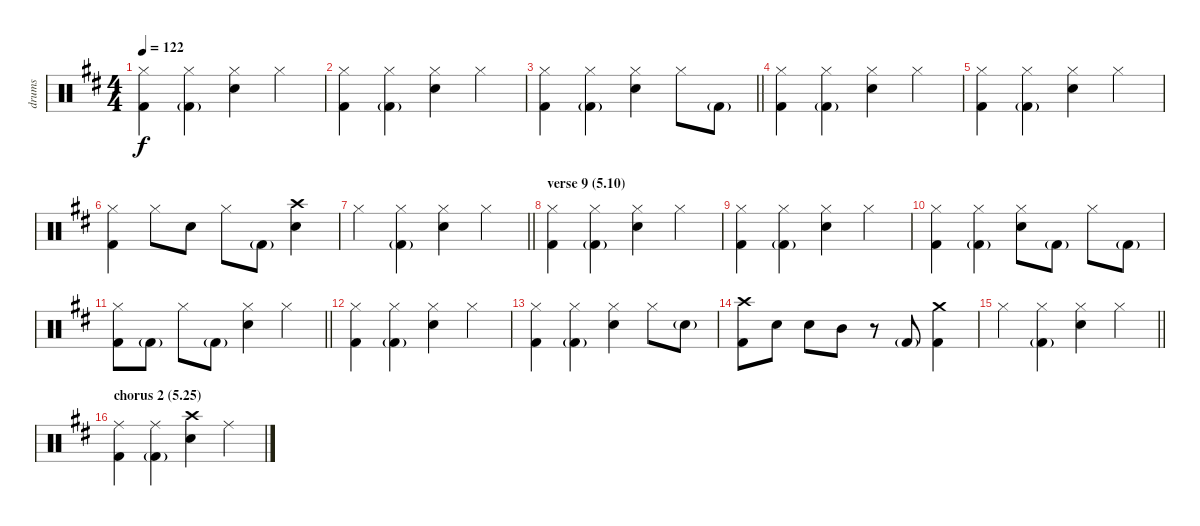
\track ("drums" "drums") {instrument percussion}
\staff {score}
\articulation defaults
\ts (4 4)
\tempo 122
\clef neutral
\ks d
("Hi-Hat (closed)" "Kick (hit) 2").4{dy f} ("Hi-Hat (closed)" "Kick (hit) 2"{g}).4 ("Hi-Hat (closed)" "Electric Snare (hit)").4 "Hi-Hat (closed)".4 |
("Hi-Hat (closed)" "Kick (hit) 2").4 ("Hi-Hat (closed)" "Kick (hit) 2"{g}).4 ("Hi-Hat (closed)" "Electric Snare (hit)").4 "Hi-Hat (closed)".4 |
\barLineRight lightlight
("Hi-Hat (closed)" "Kick (hit) 2").4 ("Hi-Hat (closed)" "Kick (hit) 2"{g}).4 ("Hi-Hat (closed)" "Electric Snare (hit)").4 "Hi-Hat (closed)".8 "Kick (hit) 2"{g}.8 |
("Hi-Hat (closed)" "Kick (hit) 2").4 ("Hi-Hat (closed)" "Kick (hit) 2"{g}).4 ("Hi-Hat (closed)" "Electric Snare (hit)").4 "Hi-Hat (closed)".4 |
("Hi-Hat (closed)" "Kick (hit) 2").4 ("Hi-Hat (closed)" "Kick (hit) 2"{g}).4 ("Hi-Hat (closed)" "Electric Snare (hit)").4 "Hi-Hat (closed)".4 |
("Hi-Hat (closed)" "Kick (hit) 2").4 "Hi-Hat (closed)".8 "Electric Snare (hit)".8 "Hi-Hat (closed)".8 "Kick (hit) 2"{g}.8 ("Crash high (hit)" "Electric Snare (hit)").4 |
\barLineRight lightlight "Hi-Hat (closed)".4
("Hi-Hat (closed)" "Kick (hit) 2"{g}).4 ("Hi-Hat (closed)" "Electric Snare (hit)").4 "Hi-Hat (closed)".4 |
\section ("" "verse 9 (5.10)")
("Hi-Hat (closed)" "Kick (hit) 2").4 ("Hi-Hat (closed)" "Kick (hit) 2"{g}).4 ("Hi-Hat (closed)" "Electric Snare (hit)").4 "Hi-Hat (closed)".4 |
("Hi-Hat (closed)" "Kick (hit) 2").4 ("Hi-Hat (closed)" "Kick (hit) 2"{g}).4 ("Hi-Hat (closed)" "Electric Snare (hit)").4 "Hi-Hat (closed)".4 |
("Hi-Hat (closed)" "Kick (hit) 2").4 ("Hi-Hat (closed)" "Kick (hit) 2"{g}).4 ("Hi-Hat (closed)" "Electric Snare (hit)").8 "Kick (hit) 2"{g}.8 "Hi-Hat (closed)".8 "Kick (hit) 2"{g}.8 |
\barLineRight lightlight
("Hi-Hat (closed)" "Kick (hit) 2").8 "Kick (hit) 2"{g}.8 "Hi-Hat (closed)".8 "Kick (hit) 2"{g}.8 ("Hi-Hat (closed)" "Electric Snare (hit)").4 "Hi-Hat (closed)".4 |
("Hi-Hat (closed)" "Kick (hit) 2").4 ("Hi-Hat (closed)" "Kick (hit) 2"{g}).4 ("Hi-Hat (closed)" "Electric Snare (hit)").4 "Hi-Hat (closed)".4 |
("Hi-Hat (closed)" "Kick (hit) 2").4 ("Hi-Hat (closed)" "Kick (hit) 2"{g}).4 ("Hi-Hat (closed)" "Electric Snare (hit)").4 "Hi-Hat (closed)".8 "Electric Snare (hit)"{g}.8 |
("Crash high (hit)" "Kick (hit) 2").8 "Electric Snare (hit)".8 "Electric Snare (hit)".8 "Mid Tom (hit)".8 r.8 "Kick (hit) 2"{g}.8 ("Crash medium (hit)" "Kick (hit) 2").4 |
\barLineRight lightlight "Hi-Hat (closed)".4
("Hi-Hat (closed)" "Kick (hit) 2"{g}).4 ("Hi-Hat (closed)" "Electric Snare (hit)").4 "Hi-Hat (closed)".4 |
\section ("" "chorus 2 (5.25)")
("Ride (middle)" "Kick (hit) 2").4 ("Ride (middle)" "Kick (hit) 2"{g}).4 ("Crash high (hit)" "Electric Snare (hit)").4 "Ride (middle)".4
